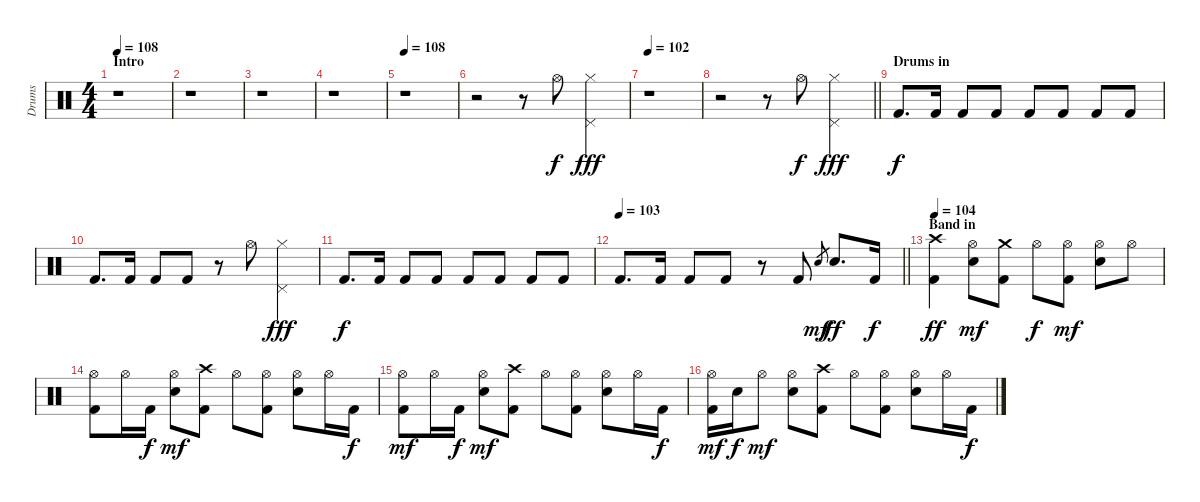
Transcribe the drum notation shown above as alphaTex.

\track ("Drums" "Drums") {instrument percussion}
\staff {score}
\articulation defaults
\ts (4 4)
\section ("" "Intro")
\tempo 108
\clef neutral
\ks c
r.1{dy f} |
r.1 |
r.1 |
r.1 |
\tempo 108
r.1 |
r.2 r.8 "Hi-Hat (open)".8 ("Hi-Hat (closed)" "Pedal Hi-Hat (hit)").4{dy fff} |
\tempo 102
r.1 |
\barLineRight lightlight
r.2 r.8 "Hi-Hat (open)".8{dy f} ("Hi-Hat (closed)" "Pedal Hi-Hat (hit)").4{dy fff} |
\section ("" "Drums in")
"Kick (hit) 2".8{d dy f} "Kick (hit) 2".16 "Kick (hit) 2".8 "Kick (hit) 2".8 "Kick (hit) 2".8 "Kick (hit) 2".8 "Kick (hit) 2".8 "Kick (hit) 2".8 |
"Kick (hit) 2".8{d} "Kick (hit) 2".16 "Kick (hit) 2".8 "Kick (hit) 2".8 r.8 "Hi-Hat (open)".8 ("Hi-Hat (closed)" "Pedal Hi-Hat (hit)").4{dy fff} |
"Kick (hit) 2".8{d dy f} "Kick (hit) 2".16 "Kick (hit) 2".8 "Kick (hit) 2".8 "Kick (hit) 2".8 "Kick (hit) 2".8 "Kick (hit) 2".8 "Kick (hit) 2".8 |
\tempo 103
\barLineRight lightlight "Kick (hit) 2".8{d} "Kick (hit) 2".16 "Kick (hit) 2".8 "Kick (hit) 2".8
r.8 "Kick (hit) 2".8 "Electric Snare (hit)"{h}.8{gr dy mf} "Electric Snare (hit)".8{d dy ff} "Kick (hit) 2".16{dy f} |
\section ("" "Band in")
\tempo 104
("Crash high (hit)" "Kick (hit) 2").4{dy ff} ("Hi-Hat (open)" "Electric Snare (hit)").8{dy mf} ("Crash medium (hit)" "Kick (hit) 2").8 "Hi-Hat (open)".8{dy f} ("Hi-Hat (open)" "Kick (hit) 2").8{dy mf} ("Hi-Hat (open)" "Electric Snare (hit)").8 "Hi-Hat (open)".8 |
("Hi-Hat (open)" "Kick (hit) 2").8 "Hi-Hat (open)".16 "Kick (hit) 2".16{dy f} ("Hi-Hat (open)" "Electric Snare (hit)").8{dy mf} ("Crash high (hit)" "Kick (hit) 2").8 "Hi-Hat (open)".8 ("Hi-Hat (open)" "Kick (hit) 2").8 ("Hi-Hat (open)" "Electric Snare (hit)").8 "Hi-Hat (open)".16 "Kick (hit) 2".16{dy f} |
("Hi-Hat (open)" "Kick (hit) 2").8{dy mf} "Hi-Hat (open)".16 "Kick (hit) 2".16{dy f} ("Hi-Hat (open)" "Electric Snare (hit)").8{dy mf} ("Crash high (hit)" "Kick (hit) 2").8 "Hi-Hat (open)".8 ("Hi-Hat (open)" "Kick (hit) 2").8 ("Hi-Hat (open)" "Electric Snare (hit)").8 "Hi-Hat (open)".16 "Kick (hit) 2".16{dy f} |
("Hi-Hat (open)" "Kick (hit) 2").16{dy mf} "Electric Snare (hit)".16{dy f} "Hi-Hat (open)".8{dy mf} ("Hi-Hat (open)" "Electric Snare (hit)").8 ("Crash high (hit)" "Kick (hit) 2").8 "Hi-Hat (open)".8 ("Hi-Hat (open)" "Kick (hit) 2").8 ("Hi-Hat (open)" "Electric Snare (hit)").8 "Hi-Hat (open)".16 "Kick (hit) 2".16{dy f}
